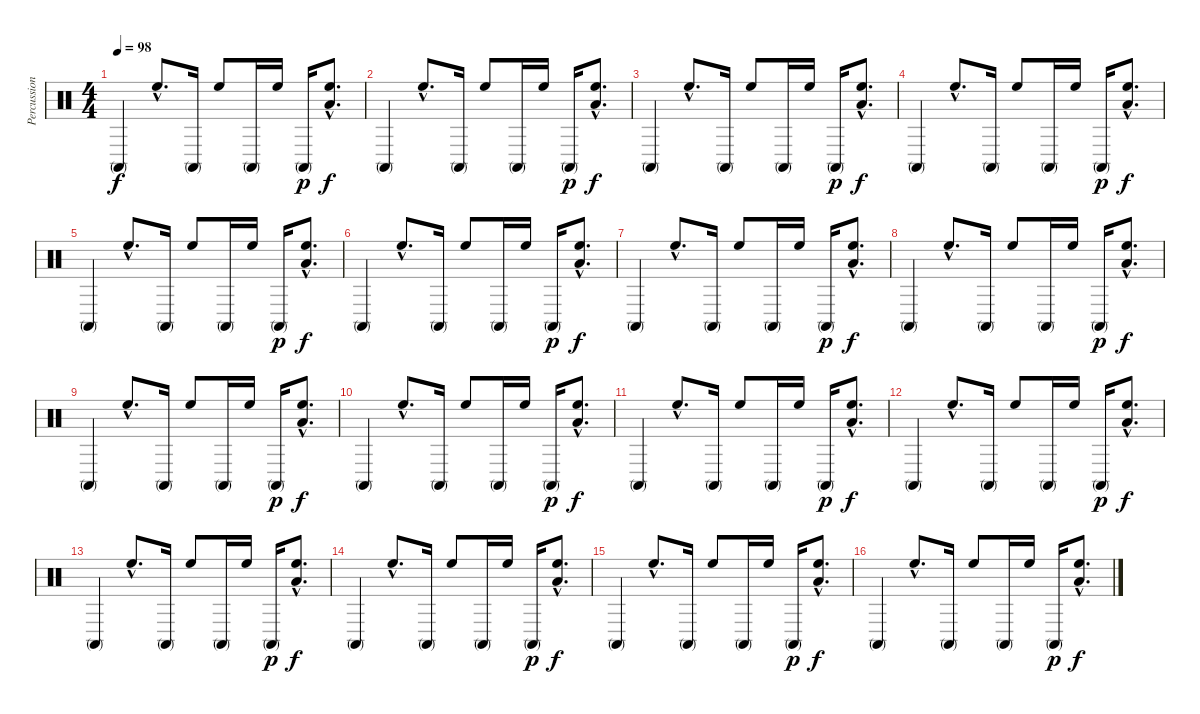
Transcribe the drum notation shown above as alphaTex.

\track ("Percussions" "Percussion") {instrument percussion}
\staff {score}
\articulation defaults
\ts (4 4)
\tempo 98
\clef neutral
\ks c "Conga high (mute)".4{dy f} "High Floor Tom (hit)"{hac}.8{d} "Conga high (mute)".16 "High Floor Tom (hit)".8 "Conga high (mute)".16 "High Floor Tom (hit)".16 "Conga high (mute)".16{dy p}
("High Floor Tom (hit)"{hac} "Low Tom (hit)"{hac}).8{d dy f} |
"Conga high (mute)".4 "High Floor Tom (hit)"{hac}.8{d} "Conga high (mute)".16 "High Floor Tom (hit)".8 "Conga high (mute)".16 "High Floor Tom (hit)".16 "Conga high (mute)".16{dy p} ("High Floor Tom (hit)"{hac} "Low Tom (hit)"{hac}).8{d dy f} |
"Conga high (mute)".4 "High Floor Tom (hit)"{hac}.8{d} "Conga high (mute)".16 "High Floor Tom (hit)".8 "Conga high (mute)".16 "High Floor Tom (hit)".16 "Conga high (mute)".16{dy p} ("High Floor Tom (hit)"{hac} "Low Tom (hit)"{hac}).8{d dy f} |
"Conga high (mute)".4 "High Floor Tom (hit)"{hac}.8{d} "Conga high (mute)".16 "High Floor Tom (hit)".8 "Conga high (mute)".16 "High Floor Tom (hit)".16 "Conga high (mute)".16{dy p} ("High Floor Tom (hit)"{hac} "Low Tom (hit)"{hac}).8{d dy f} |
"Conga high (mute)".4 "High Floor Tom (hit)"{hac}.8{d} "Conga high (mute)".16 "High Floor Tom (hit)".8 "Conga high (mute)".16 "High Floor Tom (hit)".16 "Conga high (mute)".16{dy p} ("High Floor Tom (hit)"{hac} "Low Tom (hit)"{hac}).8{d dy f} |
"Conga high (mute)".4 "High Floor Tom (hit)"{hac}.8{d} "Conga high (mute)".16 "High Floor Tom (hit)".8 "Conga high (mute)".16 "High Floor Tom (hit)".16 "Conga high (mute)".16{dy p} ("High Floor Tom (hit)"{hac} "Low Tom (hit)"{hac}).8{d dy f} |
"Conga high (mute)".4 "High Floor Tom (hit)"{hac}.8{d} "Conga high (mute)".16 "High Floor Tom (hit)".8 "Conga high (mute)".16 "High Floor Tom (hit)".16 "Conga high (mute)".16{dy p} ("High Floor Tom (hit)"{hac} "Low Tom (hit)"{hac}).8{d dy f} |
"Conga high (mute)".4 "High Floor Tom (hit)"{hac}.8{d} "Conga high (mute)".16 "High Floor Tom (hit)".8 "Conga high (mute)".16 "High Floor Tom (hit)".16 "Conga high (mute)".16{dy p} ("High Floor Tom (hit)"{hac} "Low Tom (hit)"{hac}).8{d dy f} |
"Conga high (mute)".4 "High Floor Tom (hit)"{hac}.8{d} "Conga high (mute)".16 "High Floor Tom (hit)".8 "Conga high (mute)".16 "High Floor Tom (hit)".16 "Conga high (mute)".16{dy p} ("High Floor Tom (hit)"{hac} "Low Tom (hit)"{hac}).8{d dy f} |
"Conga high (mute)".4 "High Floor Tom (hit)"{hac}.8{d} "Conga high (mute)".16 "High Floor Tom (hit)".8 "Conga high (mute)".16 "High Floor Tom (hit)".16 "Conga high (mute)".16{dy p} ("High Floor Tom (hit)"{hac} "Low Tom (hit)"{hac}).8{d dy f} |
"Conga high (mute)".4 "High Floor Tom (hit)"{hac}.8{d} "Conga high (mute)".16 "High Floor Tom (hit)".8 "Conga high (mute)".16 "High Floor Tom (hit)".16 "Conga high (mute)".16{dy p} ("High Floor Tom (hit)"{hac} "Low Tom (hit)"{hac}).8{d dy f} |
"Conga high (mute)".4 "High Floor Tom (hit)"{hac}.8{d} "Conga high (mute)".16 "High Floor Tom (hit)".8 "Conga high (mute)".16 "High Floor Tom (hit)".16 "Conga high (mute)".16{dy p} ("High Floor Tom (hit)"{hac} "Low Tom (hit)"{hac}).8{d dy f} |
"Conga high (mute)".4 "High Floor Tom (hit)"{hac}.8{d} "Conga high (mute)".16 "High Floor Tom (hit)".8 "Conga high (mute)".16 "High Floor Tom (hit)".16 "Conga high (mute)".16{dy p} ("High Floor Tom (hit)"{hac} "Low Tom (hit)"{hac}).8{d dy f} |
"Conga high (mute)".4 "High Floor Tom (hit)"{hac}.8{d} "Conga high (mute)".16 "High Floor Tom (hit)".8 "Conga high (mute)".16 "High Floor Tom (hit)".16 "Conga high (mute)".16{dy p} ("High Floor Tom (hit)"{hac} "Low Tom (hit)"{hac}).8{d dy f} |
"Conga high (mute)".4 "High Floor Tom (hit)"{hac}.8{d} "Conga high (mute)".16 "High Floor Tom (hit)".8 "Conga high (mute)".16 "High Floor Tom (hit)".16 "Conga high (mute)".16{dy p} ("High Floor Tom (hit)"{hac} "Low Tom (hit)"{hac}).8{d dy f} |
"Conga high (mute)".4 "High Floor Tom (hit)"{hac}.8{d} "Conga high (mute)".16 "High Floor Tom (hit)".8 "Conga high (mute)".16 "High Floor Tom (hit)".16 "Conga high (mute)".16{dy p} ("High Floor Tom (hit)"{hac} "Low Tom (hit)"{hac}).8{d dy f}
